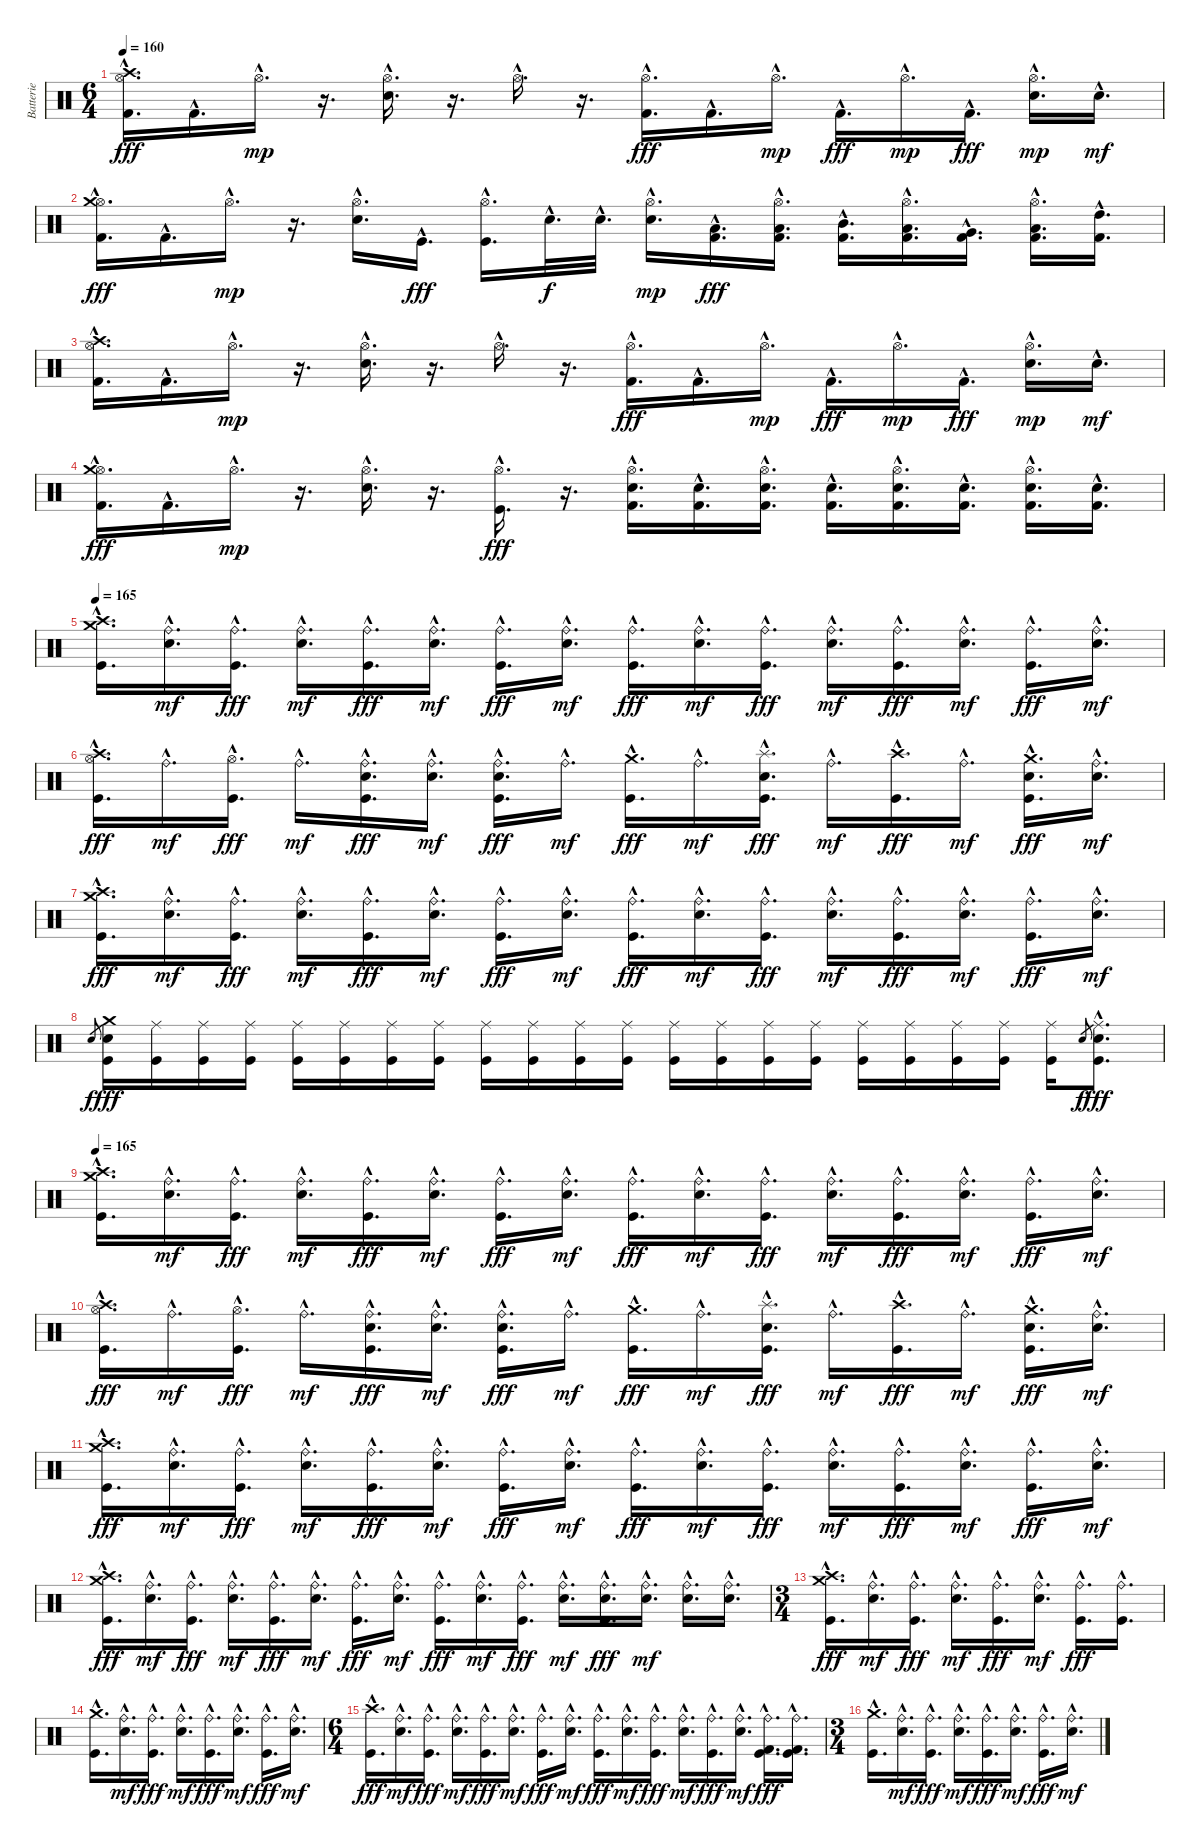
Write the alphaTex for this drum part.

\track ("Batterie" "Batterie") {instrument percussion}
\staff {score}
\articulation defaults
\ts (6 4)
\tempo 160
\clef neutral
\ks c
("Hi-Hat (open)"{hac} "Crash high (hit)"{hac} "Kick (hit) 2"{hac}).16{d dy fff} "Kick (hit) 2"{hac}.16{d} "Hi-Hat (open)"{hac}.16{d dy mp} r.16{d} ("Hi-Hat (open)"{hac} "Electric Snare (hit)"{hac}).16{d} r.16{d} "Hi-Hat (open)"{hac}.16{d} r.16{d} ("Hi-Hat (open)"{hac} "Kick (hit) 2"{hac}).16{d dy fff} "Kick (hit) 2"{hac}.16{d} "Hi-Hat (open)"{hac}.16{d dy mp} "Kick (hit) 2"{hac}.16{d dy fff} "Hi-Hat (open)"{hac}.16{d dy mp} "Kick (hit) 2"{hac}.16{d dy fff} ("Hi-Hat (open)"{hac} "Electric Snare (hit)"{hac}).16{d dy mp} "Electric Snare (hit)"{hac}.16{d dy mf} |
("Hi-Hat (open)"{hac} "Crash medium (hit)"{hac} "Kick (hit) 2"{hac}).16{d dy fff} "Kick (hit) 2"{hac}.16{d} "Hi-Hat (open)"{hac}.16{d dy mp} r.16{d} ("Hi-Hat (open)"{hac} "Electric Snare (hit)"{hac}).16{d} "Kick (hit)"{hac}.16{d dy fff} ("Hi-Hat (open)"{hac} "Kick (hit)"{hac}).16{d} "Electric Snare (hit)"{hac}.32{d dy f} "Electric Snare (hit)"{hac}.32{d} ("Hi-Hat (open)"{hac} "Electric Snare (hit)"{hac}).16{d dy mp} ("Low Floor Tom (hit)"{hac} "Kick (hit) 2"{hac}).16{d dy fff} ("Hi-Hat (open)"{hac} "Low Tom (hit)"{hac} "Kick (hit) 2"{hac}).16{d} ("Mid Tom (hit)"{hac} "Kick (hit) 2"{hac}).16{d} ("Hi-Hat (open)"{hac} "Low Tom (hit)"{hac} "Kick (hit) 2"{hac}).16{d} ("Very Low Tom (hit)"{hac} "Kick (hit) 2"{hac}).16{d} ("Hi-Hat (open)"{hac} "Low Floor Tom (hit)"{hac} "Kick (hit) 2"{hac}).16{d} ("High Tom (hit)"{hac} "Kick (hit) 2"{hac}).16{d} |
("Hi-Hat (open)"{hac} "Crash high (hit)"{hac} "Kick (hit) 2"{hac}).16{d} "Kick (hit) 2"{hac}.16{d} "Hi-Hat (open)"{hac}.16{d dy mp} r.16{d} ("Hi-Hat (open)"{hac} "Electric Snare (hit)"{hac}).16{d} r.16{d} "Hi-Hat (open)"{hac}.16{d} r.16{d} ("Hi-Hat (open)"{hac} "Kick (hit) 2"{hac}).16{d dy fff} "Kick (hit) 2"{hac}.16{d} "Hi-Hat (open)"{hac}.16{d dy mp} "Kick (hit) 2"{hac}.16{d dy fff} "Hi-Hat (open)"{hac}.16{d dy mp} "Kick (hit) 2"{hac}.16{d dy fff} ("Hi-Hat (open)"{hac} "Electric Snare (hit)"{hac}).16{d dy mp} "Electric Snare (hit)"{hac}.16{d dy mf} |
("Hi-Hat (open)"{hac} "Crash medium (hit)"{hac} "Kick (hit) 2"{hac}).16{d dy fff} "Kick (hit) 2"{hac}.16{d} "Hi-Hat (open)"{hac}.16{d dy mp} r.16{d} ("Hi-Hat (open)"{hac} "Electric Snare (hit)"{hac}).16{d} r.16{d} ("Hi-Hat (open)"{hac} "Kick (hit)"{hac}).16{d dy fff} r.16{d} ("Hi-Hat (open)"{hac} "Electric Snare (hit)"{hac} "Kick (hit) 2"{hac}).16{d} ("Electric Snare (hit)"{hac} "Kick (hit) 2"{hac}).16{d} ("Hi-Hat (open)"{hac} "Electric Snare (hit)"{hac} "Kick (hit) 2"{hac}).16{d} ("Electric Snare (hit)"{hac} "Kick (hit) 2"{hac}).16{d} ("Hi-Hat (open)"{hac} "Electric Snare (hit)"{hac} "Kick (hit) 2"{hac}).16{d} ("Electric Snare (hit)"{hac} "Kick (hit) 2"{hac}).16{d} ("Hi-Hat (open)"{hac} "Electric Snare (hit)"{hac} "Kick (hit) 2"{hac}).16{d} ("Electric Snare (hit)"{hac} "Kick (hit) 2"{hac}).16{d} |
\tempo 165
("Crash medium (hit)"{hac} "Crash high (hit)"{hac} "Kick (hit)"{hac}).16{d} ("Ride (bell)"{hac} "Electric Snare (hit)"{hac}).16{d dy mf} ("Ride (bell)"{hac} "Kick (hit)"{hac}).16{d dy fff} ("Ride (bell)"{hac} "Electric Snare (hit)"{hac}).16{d dy mf} ("Ride (bell)"{hac} "Kick (hit)"{hac}).16{d dy fff} ("Ride (bell)"{hac} "Electric Snare (hit)"{hac}).16{d dy mf} ("Ride (bell)"{hac} "Kick (hit)"{hac}).16{d dy fff} ("Ride (bell)"{hac} "Electric Snare (hit)"{hac}).16{d dy mf} ("Ride (bell)"{hac} "Kick (hit)"{hac}).16{d dy fff} ("Ride (bell)"{hac} "Electric Snare (hit)"{hac}).16{d dy mf} ("Ride (bell)"{hac} "Kick (hit)"{hac}).16{d dy fff} ("Ride (bell)"{hac} "Electric Snare (hit)"{hac}).16{d dy mf} ("Ride (bell)"{hac} "Kick (hit)"{hac}).16{d dy fff} ("Ride (bell)"{hac} "Electric Snare (hit)"{hac}).16{d dy mf} ("Ride (bell)"{hac} "Kick (hit)"{hac}).16{d dy fff} ("Ride (bell)"{hac} "Electric Snare (hit)"{hac}).16{d dy mf} |
("Hi-Hat (open)"{hac} "Crash high (hit)"{hac} "Kick (hit)"{hac}).16{d dy fff} "Ride (bell)"{hac}.16{d dy mf} ("Hi-Hat (open)"{hac} "Kick (hit)"{hac}).16{d dy fff} "Ride (bell)"{hac}.16{d dy mf} ("Ride (bell)"{hac} "Electric Snare (hit)"{hac} "Kick (hit)"{hac}).16{d dy fff} ("Ride (bell)"{hac} "Electric Snare (hit)"{hac}).16{d dy mf} ("Ride (bell)"{hac} "Electric Snare (hit)"{hac} "Kick (hit)"{hac}).16{d dy fff} "Ride (bell)"{hac}.16{d dy mf} ("Crash medium (hit)"{hac} "Kick (hit)"{hac}).16{d dy fff} "Ride (bell)"{hac}.16{d dy mf} ("Splash (hit)"{hac} "Electric Snare (hit)"{hac} "Kick (hit)"{hac}).16{d dy fff} "Ride (bell)"{hac}.16{d dy mf} ("Crash high (hit)"{hac} "Kick (hit)"{hac}).16{d dy fff} "Ride (bell)"{hac}.16{d dy mf} ("Crash medium (hit)"{hac} "Electric Snare (hit)"{hac} "Kick (hit)"{hac}).16{d dy fff} ("Ride (bell)"{hac} "Electric Snare (hit)"{hac}).16{d dy mf} |
("Crash medium (hit)"{hac} "Crash high (hit)"{hac} "Kick (hit)"{hac}).16{d dy fff} ("Ride (bell)"{hac} "Electric Snare (hit)"{hac}).16{d dy mf} ("Ride (bell)"{hac} "Kick (hit)"{hac}).16{d dy fff} ("Ride (bell)"{hac} "Electric Snare (hit)"{hac}).16{d dy mf} ("Ride (bell)"{hac} "Kick (hit)"{hac}).16{d dy fff} ("Ride (bell)"{hac} "Electric Snare (hit)"{hac}).16{d dy mf} ("Ride (bell)"{hac} "Kick (hit)"{hac}).16{d dy fff} ("Ride (bell)"{hac} "Electric Snare (hit)"{hac}).16{d dy mf} ("Ride (bell)"{hac} "Kick (hit)"{hac}).16{d dy fff} ("Ride (bell)"{hac} "Electric Snare (hit)"{hac}).16{d dy mf} ("Ride (bell)"{hac} "Kick (hit)"{hac}).16{d dy fff} ("Ride (bell)"{hac} "Electric Snare (hit)"{hac}).16{d dy mf} ("Ride (bell)"{hac} "Kick (hit)"{hac}).16{d dy fff} ("Ride (bell)"{hac} "Electric Snare (hit)"{hac}).16{d dy mf} ("Ride (bell)"{hac} "Kick (hit)"{hac}).16{d dy fff} ("Ride (bell)"{hac} "Electric Snare (hit)"{hac}).16{d dy mf} |
"Electric Snare (hit)".8{gr dy f} ("Crash medium (hit)" "Electric Snare (hit)" "Kick (hit)").16{dy fff} ("Ride (middle)" "Kick (hit)").16 ("Ride (middle)" "Kick (hit)").16 ("Ride (middle)" "Kick (hit)").16 ("Ride (middle)" "Kick (hit)").16 ("Ride (middle)" "Kick (hit)").16 ("Ride (middle)" "Kick (hit)").16 ("Ride (middle)" "Kick (hit)").16 ("Ride (middle)" "Kick (hit)").16 ("Ride (middle)" "Kick (hit)").16 ("Ride (middle)" "Kick (hit)").16 ("Ride (middle)" "Kick (hit)").16 ("Ride (middle)" "Kick (hit)").16 ("Ride (middle)" "Kick (hit)").16 ("Ride (middle)" "Kick (hit)").16 ("Ride (middle)" "Kick (hit)").16 ("Ride (middle)" "Kick (hit)").16 ("Ride (middle)" "Kick (hit)").16 ("Ride (middle)" "Kick (hit)").16 ("Ride (middle)" "Kick (hit)").16 ("Ride (middle)" "Kick (hit)").16 "Electric Snare (hit)".8{gr dy f} ("Ride (middle)"{hac} "Electric Snare (hit)"{hac} "Kick (hit)"{hac}).8{d dy fff} |
\tempo 165
("Crash medium (hit)"{hac} "Crash high (hit)"{hac} "Kick (hit)"{hac}).16{d} ("Ride (bell)"{hac} "Electric Snare (hit)"{hac}).16{d dy mf} ("Ride (bell)"{hac} "Kick (hit)"{hac}).16{d dy fff} ("Ride (bell)"{hac} "Electric Snare (hit)"{hac}).16{d dy mf} ("Ride (bell)"{hac} "Kick (hit)"{hac}).16{d dy fff} ("Ride (bell)"{hac} "Electric Snare (hit)"{hac}).16{d dy mf} ("Ride (bell)"{hac} "Kick (hit)"{hac}).16{d dy fff} ("Ride (bell)"{hac} "Electric Snare (hit)"{hac}).16{d dy mf} ("Ride (bell)"{hac} "Kick (hit)"{hac}).16{d dy fff} ("Ride (bell)"{hac} "Electric Snare (hit)"{hac}).16{d dy mf} ("Ride (bell)"{hac} "Kick (hit)"{hac}).16{d dy fff} ("Ride (bell)"{hac} "Electric Snare (hit)"{hac}).16{d dy mf} ("Ride (bell)"{hac} "Kick (hit)"{hac}).16{d dy fff} ("Ride (bell)"{hac} "Electric Snare (hit)"{hac}).16{d dy mf} ("Ride (bell)"{hac} "Kick (hit)"{hac}).16{d dy fff} ("Ride (bell)"{hac} "Electric Snare (hit)"{hac}).16{d dy mf} |
("Hi-Hat (open)"{hac} "Crash high (hit)"{hac} "Kick (hit)"{hac}).16{d dy fff} "Ride (bell)"{hac}.16{d dy mf} ("Hi-Hat (open)"{hac} "Kick (hit)"{hac}).16{d dy fff} "Ride (bell)"{hac}.16{d dy mf} ("Ride (bell)"{hac} "Electric Snare (hit)"{hac} "Kick (hit)"{hac}).16{d dy fff} ("Ride (bell)"{hac} "Electric Snare (hit)"{hac}).16{d dy mf} ("Ride (bell)"{hac} "Electric Snare (hit)"{hac} "Kick (hit)"{hac}).16{d dy fff} "Ride (bell)"{hac}.16{d dy mf} ("Crash medium (hit)"{hac} "Kick (hit)"{hac}).16{d dy fff} "Ride (bell)"{hac}.16{d dy mf} ("Splash (hit)"{hac} "Electric Snare (hit)"{hac} "Kick (hit)"{hac}).16{d dy fff} "Ride (bell)"{hac}.16{d dy mf} ("Crash high (hit)"{hac} "Kick (hit)"{hac}).16{d dy fff} "Ride (bell)"{hac}.16{d dy mf} ("Crash medium (hit)"{hac} "Electric Snare (hit)"{hac} "Kick (hit)"{hac}).16{d dy fff} ("Ride (bell)"{hac} "Electric Snare (hit)"{hac}).16{d dy mf} |
("Crash medium (hit)"{hac} "Crash high (hit)"{hac} "Kick (hit)"{hac}).16{d dy fff} ("Ride (bell)"{hac} "Electric Snare (hit)"{hac}).16{d dy mf} ("Ride (bell)"{hac} "Kick (hit)"{hac}).16{d dy fff} ("Ride (bell)"{hac} "Electric Snare (hit)"{hac}).16{d dy mf} ("Ride (bell)"{hac} "Kick (hit)"{hac}).16{d dy fff} ("Ride (bell)"{hac} "Electric Snare (hit)"{hac}).16{d dy mf} ("Ride (bell)"{hac} "Kick (hit)"{hac}).16{d dy fff} ("Ride (bell)"{hac} "Electric Snare (hit)"{hac}).16{d dy mf} ("Ride (bell)"{hac} "Kick (hit)"{hac}).16{d dy fff} ("Ride (bell)"{hac} "Electric Snare (hit)"{hac}).16{d dy mf} ("Ride (bell)"{hac} "Kick (hit)"{hac}).16{d dy fff} ("Ride (bell)"{hac} "Electric Snare (hit)"{hac}).16{d dy mf} ("Ride (bell)"{hac} "Kick (hit)"{hac}).16{d dy fff} ("Ride (bell)"{hac} "Electric Snare (hit)"{hac}).16{d dy mf} ("Ride (bell)"{hac} "Kick (hit)"{hac}).16{d dy fff} ("Ride (bell)"{hac} "Electric Snare (hit)"{hac}).16{d dy mf} |
("Crash medium (hit)"{hac} "Crash high (hit)"{hac} "Kick (hit)"{hac}).16{d dy fff} ("Ride (bell)"{hac} "Electric Snare (hit)"{hac}).16{d dy mf} ("Ride (bell)"{hac} "Kick (hit)"{hac}).16{d dy fff} ("Ride (bell)"{hac} "Electric Snare (hit)"{hac}).16{d dy mf} ("Ride (bell)"{hac} "Kick (hit)"{hac}).16{d dy fff} ("Ride (bell)"{hac} "Electric Snare (hit)"{hac}).16{d dy mf} ("Ride (bell)"{hac} "Kick (hit)"{hac}).16{d dy fff} ("Ride (bell)"{hac} "Electric Snare (hit)"{hac}).16{d dy mf} ("Ride (bell)"{hac} "Kick (hit)"{hac}).16{d dy fff} ("Ride (bell)"{hac} "Electric Snare (hit)"{hac}).16{d dy mf} ("Ride (bell)"{hac} "Kick (hit)"{hac}).16{d dy fff} ("Ride (bell)"{hac} "Snare (hit) 2"{hac}).16{d dy mf} ("Ride (bell)"{hac} "Electric Snare (hit)"{hac} "Kick (hit)"{hac}).16{d dy fff} ("Ride (bell)"{hac} "Electric Snare (hit)"{hac}).16{d dy mf} ("Ride (bell)"{hac} "Electric Snare (hit)"{hac}).16{d} ("Ride (bell)"{hac} "Electric Snare (hit)"{hac}).16{d} |
\ts (3 4)
("Crash medium (hit)"{hac} "Crash high (hit)"{hac} "Kick (hit)"{hac}).16{d dy fff} ("Ride (bell)"{hac} "Electric Snare (hit)"{hac}).16{d dy mf} ("Ride (bell)"{hac} "Kick (hit)"{hac}).16{d dy fff} ("Ride (bell)"{hac} "Electric Snare (hit)"{hac}).16{d dy mf} ("Ride (bell)"{hac} "Kick (hit)"{hac}).16{d dy fff} ("Ride (bell)"{hac} "Electric Snare (hit)"{hac}).16{d dy mf} ("Ride (bell)"{hac} "Kick (hit)"{hac}).16{d dy fff} ("Ride (bell)"{hac} "Kick (hit)"{hac}).16{d} |
("Crash medium (hit)"{hac} "Kick (hit)"{hac}).16{d} ("Ride (bell)"{hac} "Electric Snare (hit)"{hac}).16{d dy mf} ("Ride (bell)"{hac} "Kick (hit)"{hac}).16{d dy fff} ("Ride (bell)"{hac} "Electric Snare (hit)"{hac}).16{d dy mf} ("Ride (bell)"{hac} "Kick (hit)"{hac}).16{d dy fff} ("Ride (bell)"{hac} "Electric Snare (hit)"{hac}).16{d dy mf} ("Ride (bell)"{hac} "Kick (hit)"{hac}).16{d dy fff} ("Ride (bell)"{hac} "Electric Snare (hit)"{hac}).16{d dy mf} |
\ts (6 4)
("Crash high (hit)"{hac} "Kick (hit)"{hac}).16{d dy fff} ("Ride (bell)"{hac} "Electric Snare (hit)"{hac}).16{d dy mf} ("Ride (bell)"{hac} "Kick (hit)"{hac}).16{d dy fff} ("Ride (bell)"{hac} "Electric Snare (hit)"{hac}).16{d dy mf} ("Ride (bell)"{hac} "Kick (hit)"{hac}).16{d dy fff} ("Ride (bell)"{hac} "Electric Snare (hit)"{hac}).16{d dy mf} ("Ride (bell)"{hac} "Kick (hit)"{hac}).16{d dy fff} ("Ride (bell)"{hac} "Electric Snare (hit)"{hac}).16{d dy mf} ("Ride (bell)"{hac} "Kick (hit)"{hac}).16{d dy fff} ("Ride (bell)"{hac} "Electric Snare (hit)"{hac}).16{d dy mf} ("Ride (bell)"{hac} "Kick (hit)"{hac}).16{d dy fff} ("Ride (bell)"{hac} "Electric Snare (hit)"{hac}).16{d dy mf} ("Ride (bell)"{hac} "Kick (hit)"{hac}).16{d dy fff} ("Ride (bell)"{hac} "Electric Snare (hit)"{hac}).16{d dy mf} ("Ride (bell)"{hac} "Kick (hit) 2"{hac} "Kick (hit)"{hac}).16{d dy fff} ("Ride (bell)"{hac} "Kick (hit)"{hac} "Kick (hit) 2"{hac}).16{d} |
\ts (3 4)
("Crash medium (hit)"{hac} "Kick (hit)"{hac}).16{d} ("Ride (bell)"{hac} "Electric Snare (hit)"{hac}).16{d dy mf} ("Ride (bell)"{hac} "Kick (hit)"{hac}).16{d dy fff} ("Ride (bell)"{hac} "Electric Snare (hit)"{hac}).16{d dy mf} ("Ride (bell)"{hac} "Kick (hit)"{hac}).16{d dy fff} ("Ride (bell)"{hac} "Electric Snare (hit)"{hac}).16{d dy mf} ("Ride (bell)"{hac} "Kick (hit)"{hac}).16{d dy fff} ("Ride (bell)"{hac} "Electric Snare (hit)"{hac}).16{d dy mf}
